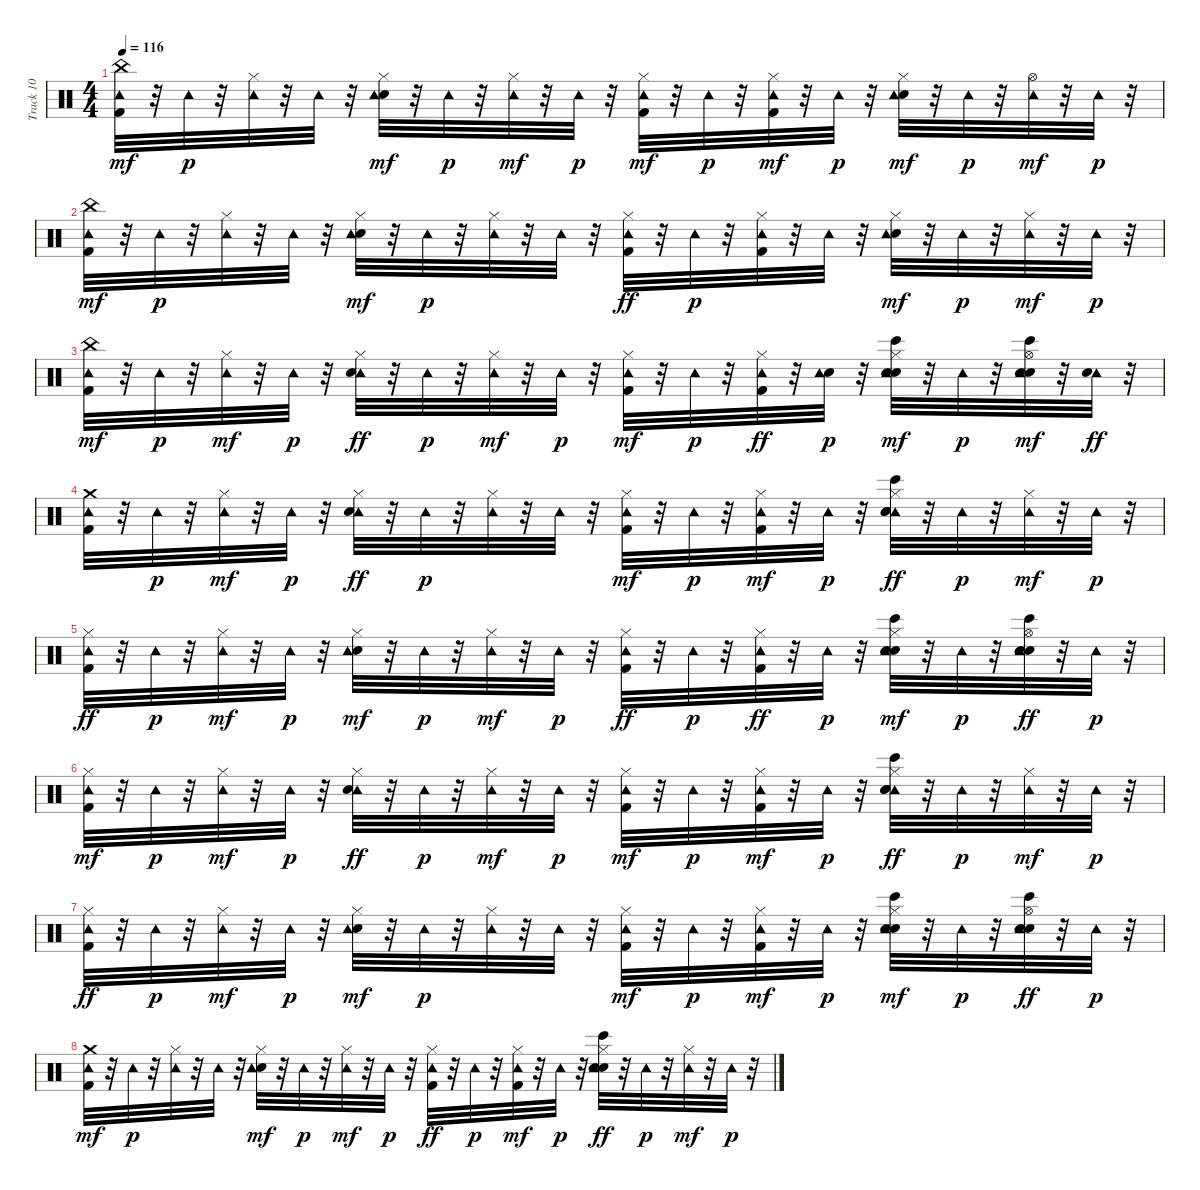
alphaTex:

\track ("Track 10" "Track 10") {instrument percussion}
\staff {score}
\articulation defaults
\ts (4 4)
\tempo 116
\clef neutral
\ks c
("China (hit)" "Kick (hit) 2" "Tambourine (hit)").32{dy mf} r.32 "Tambourine (hit)".32{dy p} r.32 ("Tambourine (hit)" "Hi-Hat (closed)").32 r.32 "Tambourine (hit)".32 r.32 ("Snare (hit) 2" "Tambourine (hit)" "Hi-Hat (closed)").32{dy mf} r.32 "Tambourine (hit)".32{dy p} r.32 ("Hi-Hat (closed)" "Tambourine (hit)").32{dy mf} r.32 "Tambourine (hit)".32{dy p} r.32 ("Kick (hit) 2" "Tambourine (hit)" "Hi-Hat (closed)").32{dy mf} r.32 "Tambourine (hit)".32{dy p} r.32 ("Kick (hit) 2" "Hi-Hat (closed)" "Tambourine (hit)").32{dy mf} r.32 "Tambourine (hit)".32{dy p} r.32 ("Hi-Hat (closed)" "Snare (hit) 2" "Tambourine (hit)").32{dy mf} r.32 "Tambourine (hit)".32{dy p} r.32 ("Hi-Hat (open)" "Tambourine (hit)").32{dy mf} r.32 "Tambourine (hit)".32{dy p} r.32 |
("Tambourine (hit)" "Kick (hit) 2" "China (hit)").32{dy mf} r.32 "Tambourine (hit)".32{dy p} r.32 ("Tambourine (hit)" "Hi-Hat (closed)").32 r.32 "Tambourine (hit)".32 r.32 ("Snare (hit) 2" "Tambourine (hit)" "Hi-Hat (closed)").32{dy mf} r.32 "Tambourine (hit)".32{dy p} r.32 ("Tambourine (hit)" "Hi-Hat (closed)").32 r.32 "Tambourine (hit)".32 r.32 ("Tambourine (hit)" "Kick (hit) 2" "Hi-Hat (closed)").32{dy ff} r.32 "Tambourine (hit)".32{dy p} r.32 ("Tambourine (hit)" "Kick (hit) 2" "Hi-Hat (closed)").32 r.32 "Tambourine (hit)".32 r.32 ("Snare (hit) 2" "Hi-Hat (closed)" "Tambourine (hit)").32{dy mf} r.32 "Tambourine (hit)".32{dy p} r.32 ("Hi-Hat (closed)" "Tambourine (hit)").32{dy mf} r.32 "Tambourine (hit)".32{dy p} r.32 |
("Kick (hit) 2" "China (hit)" "Tambourine (hit)").32{dy mf} r.32 "Tambourine (hit)".32{dy p} r.32 ("Hi-Hat (closed)" "Tambourine (hit)").32{dy mf} r.32 "Tambourine (hit)".32{dy p} r.32 ("Hi-Hat (closed)" "Tambourine (hit)" "Snare (hit) 2").32{dy ff} r.32 "Tambourine (hit)".32{dy p} r.32 ("Hi-Hat (closed)" "Tambourine (hit)").32{dy mf} r.32 "Tambourine (hit)".32{dy p} r.32 ("Hi-Hat (closed)" "Kick (hit) 2" "Tambourine (hit)").32{dy mf} r.32 "Tambourine (hit)".32{dy p} r.32 ("Tambourine (hit)" "Hi-Hat (closed)" "Kick (hit) 2").32{dy ff} r.32 ("Snare (hit) 2" "Tambourine (hit)").32{dy p} r.32 ("Hi-Hat (closed)" "Bongo High (hit)" "Snare (hit) 2" "Hand Clap (hit)" "Tambourine (hit)").32{dy mf} r.32 "Tambourine (hit)".32{dy p} r.32 ("Hi-Hat (open)" "Bongo High (hit)" "Hand Clap (hit)" "Snare (hit) 2" "Tambourine (hit)").32{dy mf} r.32 ("Tambourine (hit)" "Snare (hit) 2").32{dy ff} r.32 |
("Tambourine (hit)" "Kick (hit) 2" "Crash medium (hit)").32 r.32 "Tambourine (hit)".32{dy p} r.32 ("Hi-Hat (closed)" "Tambourine (hit)").32{dy mf} r.32 "Tambourine (hit)".32{dy p} r.32 ("Tambourine (hit)" "Snare (hit) 2" "Hi-Hat (closed)").32{dy ff} r.32 "Tambourine (hit)".32{dy p} r.32 ("Tambourine (hit)" "Hi-Hat (closed)").32 r.32 "Tambourine (hit)".32 r.32 ("Kick (hit) 2" "Hi-Hat (closed)" "Tambourine (hit)").32{dy mf} r.32 "Tambourine (hit)".32{dy p} r.32 ("Hi-Hat (closed)" "Kick (hit) 2" "Tambourine (hit)").32{dy mf} r.32 "Tambourine (hit)".32{dy p} r.32 ("Tambourine (hit)" "Snare (hit) 2" "Bongo High (hit)" "Hand Clap (hit)" "Hi-Hat (closed)").32{dy ff} r.32 "Tambourine (hit)".32{dy p} r.32 ("Hi-Hat (closed)" "Tambourine (hit)").32{dy mf} r.32 "Tambourine (hit)".32{dy p} r.32 |
("Tambourine (hit)" "Hi-Hat (closed)" "Kick (hit) 2").32{dy ff} r.32 "Tambourine (hit)".32{dy p} r.32 ("Hi-Hat (closed)" "Tambourine (hit)").32{dy mf} r.32 "Tambourine (hit)".32{dy p} r.32 ("Snare (hit) 2" "Tambourine (hit)" "Hi-Hat (closed)").32{dy mf} r.32 "Tambourine (hit)".32{dy p} r.32 ("Hi-Hat (closed)" "Tambourine (hit)").32{dy mf} r.32 "Tambourine (hit)".32{dy p} r.32 ("Hi-Hat (closed)" "Tambourine (hit)" "Kick (hit) 2").32{dy ff} r.32 "Tambourine (hit)".32{dy p} r.32 ("Hi-Hat (closed)" "Tambourine (hit)" "Kick (hit) 2").32{dy ff} r.32 "Tambourine (hit)".32{dy p} r.32 ("Bongo High (hit)" "Hand Clap (hit)" "Snare (hit) 2" "Hi-Hat (closed)" "Tambourine (hit)").32{dy mf} r.32 "Tambourine (hit)".32{dy p} r.32 ("Bongo High (hit)" "Hi-Hat (open)" "Snare (hit) 2" "Tambourine (hit)" "Hand Clap (hit)").32{dy ff} r.32 "Tambourine (hit)".32{dy p} r.32 |
("Hi-Hat (closed)" "Kick (hit) 2" "Tambourine (hit)").32{dy mf} r.32 "Tambourine (hit)".32{dy p} r.32 ("Hi-Hat (closed)" "Tambourine (hit)").32{dy mf} r.32 "Tambourine (hit)".32{dy p} r.32 ("Tambourine (hit)" "Snare (hit) 2" "Hi-Hat (closed)").32{dy ff} r.32 "Tambourine (hit)".32{dy p} r.32 ("Hi-Hat (closed)" "Tambourine (hit)").32{dy mf} r.32 "Tambourine (hit)".32{dy p} r.32 ("Hi-Hat (closed)" "Kick (hit) 2" "Tambourine (hit)").32{dy mf} r.32 "Tambourine (hit)".32{dy p} r.32 ("Hi-Hat (closed)" "Kick (hit) 2" "Tambourine (hit)").32{dy mf} r.32 "Tambourine (hit)".32{dy p} r.32 ("Tambourine (hit)" "Hand Clap (hit)" "Snare (hit) 2" "Hi-Hat (closed)" "Bongo High (hit)").32{dy ff} r.32 "Tambourine (hit)".32{dy p} r.32 ("Hi-Hat (closed)" "Tambourine (hit)").32{dy mf} r.32 "Tambourine (hit)".32{dy p} r.32 |
("Hi-Hat (closed)" "Tambourine (hit)" "Kick (hit) 2").32{dy ff} r.32 "Tambourine (hit)".32{dy p} r.32 ("Hi-Hat (closed)" "Tambourine (hit)").32{dy mf} r.32 "Tambourine (hit)".32{dy p} r.32 ("Snare (hit) 2" "Tambourine (hit)" "Hi-Hat (closed)").32{dy mf} r.32 "Tambourine (hit)".32{dy p} r.32 ("Tambourine (hit)" "Hi-Hat (closed)").32 r.32 "Tambourine (hit)".32 r.32 ("Hi-Hat (closed)" "Kick (hit) 2" "Tambourine (hit)").32{dy mf} r.32 "Tambourine (hit)".32{dy p} r.32 ("Hi-Hat (closed)" "Kick (hit) 2" "Tambourine (hit)").32{dy mf} r.32 "Tambourine (hit)".32{dy p} r.32 ("Hand Clap (hit)" "Bongo High (hit)" "Snare (hit) 2" "Tambourine (hit)" "Hi-Hat (closed)").32{dy mf} r.32 "Tambourine (hit)".32{dy p} r.32 ("Hi-Hat (open)" "Hand Clap (hit)" "Tambourine (hit)" "Snare (hit) 2" "Bongo High (hit)").32{dy ff} r.32 "Tambourine (hit)".32{dy p} r.32 |
("Kick (hit) 2" "Crash medium (hit)" "Tambourine (hit)").32{dy mf} r.32 "Tambourine (hit)".32{dy p} r.32 ("Tambourine (hit)" "Hi-Hat (closed)").32 r.32 "Tambourine (hit)".32 r.32 ("Snare (hit) 2" "Hi-Hat (closed)" "Tambourine (hit)").32{dy mf} r.32 "Tambourine (hit)".32{dy p} r.32 ("Hi-Hat (closed)" "Tambourine (hit)").32{dy mf} r.32 "Tambourine (hit)".32{dy p} r.32 ("Tambourine (hit)" "Kick (hit) 2" "Hi-Hat (closed)").32{dy ff} r.32 "Tambourine (hit)".32{dy p} r.32 ("Hi-Hat (closed)" "Kick (hit) 2" "Tambourine (hit)").32{dy mf} r.32 "Tambourine (hit)".32{dy p} r.32 ("Hi-Hat (closed)" "Snare (hit) 2" "Hand Clap (hit)" "Tambourine (hit)" "Bongo High (hit)").32{dy ff} r.32 "Tambourine (hit)".32{dy p} r.32 ("Hi-Hat (closed)" "Tambourine (hit)").32{dy mf} r.32 "Tambourine (hit)".32{dy p} r.32
